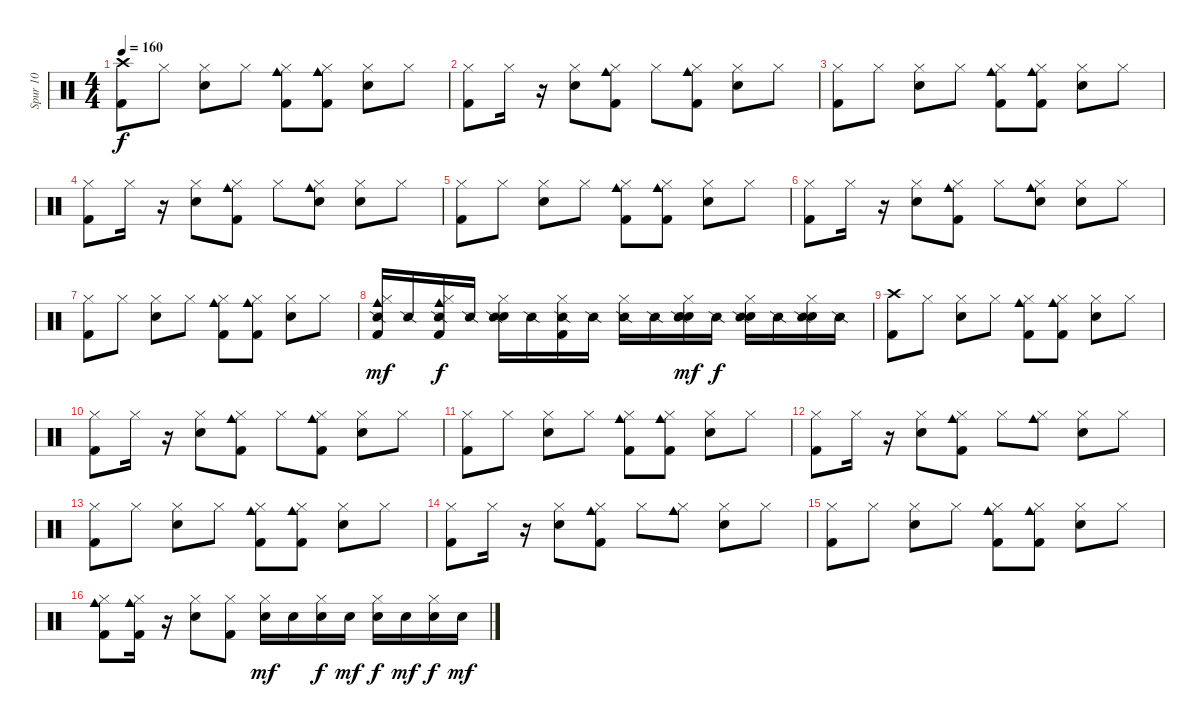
\track ("Spur 10" "Spur 10") {instrument percussion}
\staff {score}
\articulation defaults
\ts (4 4)
\tempo 160
\clef neutral
\ks c
("Crash high (hit)" "Kick (hit) 2").8{dy f} "Hi-Hat (closed)".8 ("Hi-Hat (closed)" "Snare (hit) 2").8 "Hi-Hat (closed)".8 ("Hi-Hat (closed)" "Cowbell medium (hit)" "Kick (hit) 2").8 ("Hi-Hat (closed)" "Cowbell medium (hit)" "Kick (hit) 2").8 ("Hi-Hat (closed)" "Snare (hit) 2").8 "Hi-Hat (closed)".8 |
("Hi-Hat (closed)" "Kick (hit) 2").8 "Hi-Hat (closed)".16 r.16 ("Hi-Hat (closed)" "Snare (hit) 2").8 ("Hi-Hat (closed)" "Kick (hit) 2" "Cowbell medium (hit)").8 "Hi-Hat (closed)".8 ("Hi-Hat (closed)" "Kick (hit) 2" "Cowbell medium (hit)").8 ("Hi-Hat (closed)" "Snare (hit) 2").8 "Hi-Hat (closed)".8 |
("Hi-Hat (closed)" "Kick (hit) 2").8 "Hi-Hat (closed)".8 ("Hi-Hat (closed)" "Snare (hit) 2").8 "Hi-Hat (closed)".8 ("Hi-Hat (closed)" "Cowbell medium (hit)" "Kick (hit) 2").8 ("Hi-Hat (closed)" "Cowbell medium (hit)" "Kick (hit) 2").8 ("Hi-Hat (closed)" "Snare (hit) 2").8 "Hi-Hat (closed)".8 |
("Hi-Hat (closed)" "Kick (hit) 2").8 "Hi-Hat (closed)".16 r.16 ("Hi-Hat (closed)" "Snare (hit) 2").8 ("Hi-Hat (closed)" "Kick (hit) 2" "Cowbell medium (hit)").8 "Hi-Hat (closed)".8 ("Hi-Hat (closed)" "Hand Clap (hit)" "Cowbell medium (hit)").8 ("Hi-Hat (closed)" "Snare (hit) 2").8 "Hi-Hat (closed)".8 |
("Hi-Hat (closed)" "Kick (hit) 2").8 "Hi-Hat (closed)".8 ("Hi-Hat (closed)" "Snare (hit) 2").8 "Hi-Hat (closed)".8 ("Hi-Hat (closed)" "Cowbell medium (hit)" "Kick (hit) 2").8 ("Hi-Hat (closed)" "Cowbell medium (hit)" "Kick (hit) 2").8 ("Hi-Hat (closed)" "Snare (hit) 2").8 "Hi-Hat (closed)".8 |
("Hi-Hat (closed)" "Kick (hit) 2").8 "Hi-Hat (closed)".16 r.16 ("Hi-Hat (closed)" "Snare (hit) 2").8 ("Hi-Hat (closed)" "Kick (hit) 2" "Cowbell medium (hit)").8 "Hi-Hat (closed)".8 ("Hi-Hat (closed)" "Hand Clap (hit)" "Cowbell medium (hit)").8 ("Hi-Hat (closed)" "Snare (hit) 2").8 "Hi-Hat (closed)".8 |
("Hi-Hat (closed)" "Kick (hit) 2").8 "Hi-Hat (closed)".8 ("Hi-Hat (closed)" "Snare (hit) 2").8 "Hi-Hat (closed)".8 ("Hi-Hat (closed)" "Cowbell medium (hit)" "Kick (hit) 2").8 ("Hi-Hat (closed)" "Cowbell medium (hit)" "Kick (hit) 2").8 ("Hi-Hat (closed)" "Snare (hit) 2").8 "Hi-Hat (closed)".8 |
("Cowbell medium (hit)" "Hi-Hat (closed)" "Kick (hit) 2" "Snare (side stick) 2").16{dy mf} "Snare (side stick) 2".16 ("Cowbell medium (hit)" "Kick (hit) 2" "Hi-Hat (closed)" "Snare (side stick) 2").16{dy f} "Snare (side stick) 2".16 ("Hi-Hat (closed)" "Snare (hit) 2" "Snare (side stick) 2").16 "Snare (side stick) 2".16 ("Hi-Hat (closed)" "Kick (hit) 2" "Snare (side stick) 2").16 "Snare (side stick) 2".16 ("Hi-Hat (closed)" "Snare (side stick) 2").16 "Snare (side stick) 2".16 ("Hi-Hat (closed)" "Snare (hit) 2" "Hand Clap (hit)" "Snare (side stick) 2").16{dy mf} "Snare (side stick) 2".16{dy f} ("Hi-Hat (closed)" "Snare (hit) 2" "Snare (side stick) 2").16 "Snare (side stick) 2".16 ("Snare (hit) 2" "Hi-Hat (closed)" "Snare (side stick) 2").16 "Snare (side stick) 2".16 |
("Crash high (hit)" "Kick (hit) 2").8 "Hi-Hat (closed)".8 ("Hi-Hat (closed)" "Snare (hit) 2").8 "Hi-Hat (closed)".8 ("Hi-Hat (closed)" "Cowbell medium (hit)" "Kick (hit) 2").8 ("Hi-Hat (closed)" "Cowbell medium (hit)" "Kick (hit) 2").8 ("Hi-Hat (closed)" "Snare (hit) 2").8 "Hi-Hat (closed)".8 |
("Hi-Hat (closed)" "Kick (hit) 2").8 "Hi-Hat (closed)".16 r.16 ("Hi-Hat (closed)" "Snare (hit) 2").8 ("Hi-Hat (closed)" "Kick (hit) 2" "Cowbell medium (hit)").8 "Hi-Hat (closed)".8 ("Hi-Hat (closed)" "Kick (hit) 2" "Cowbell medium (hit)").8 ("Hi-Hat (closed)" "Snare (hit) 2").8 "Hi-Hat (closed)".8 |
("Hi-Hat (closed)" "Kick (hit) 2").8 "Hi-Hat (closed)".8 ("Hi-Hat (closed)" "Snare (hit) 2").8 "Hi-Hat (closed)".8 ("Hi-Hat (closed)" "Cowbell medium (hit)" "Kick (hit) 2").8 ("Hi-Hat (closed)" "Cowbell medium (hit)" "Kick (hit) 2").8 ("Hi-Hat (closed)" "Snare (hit) 2").8 "Hi-Hat (closed)".8 |
("Hi-Hat (closed)" "Kick (hit) 2").8 "Hi-Hat (closed)".16 r.16 ("Hi-Hat (closed)" "Snare (hit) 2").8 ("Hi-Hat (closed)" "Kick (hit) 2" "Cowbell medium (hit)").8 "Hi-Hat (closed)".8 ("Hi-Hat (closed)" "Cowbell medium (hit)").8 ("Hi-Hat (closed)" "Snare (hit) 2").8 "Hi-Hat (closed)".8 |
("Hi-Hat (closed)" "Kick (hit) 2").8 "Hi-Hat (closed)".8 ("Hi-Hat (closed)" "Snare (hit) 2").8 "Hi-Hat (closed)".8 ("Hi-Hat (closed)" "Cowbell medium (hit)" "Kick (hit) 2").8 ("Hi-Hat (closed)" "Cowbell medium (hit)" "Kick (hit) 2").8 ("Hi-Hat (closed)" "Snare (hit) 2").8 "Hi-Hat (closed)".8 |
("Hi-Hat (closed)" "Kick (hit) 2").8 "Hi-Hat (closed)".16 r.16 ("Hi-Hat (closed)" "Snare (hit) 2").8 ("Hi-Hat (closed)" "Kick (hit) 2" "Cowbell medium (hit)").8 "Hi-Hat (closed)".8 ("Hi-Hat (closed)" "Cowbell medium (hit)").8 ("Hi-Hat (closed)" "Snare (hit) 2").8 "Hi-Hat (closed)".8 |
("Hi-Hat (closed)" "Kick (hit) 2").8 "Hi-Hat (closed)".8 ("Hi-Hat (closed)" "Snare (hit) 2").8 "Hi-Hat (closed)".8 ("Hi-Hat (closed)" "Cowbell medium (hit)" "Kick (hit) 2").8 ("Hi-Hat (closed)" "Cowbell medium (hit)" "Kick (hit) 2").8 ("Hi-Hat (closed)" "Snare (hit) 2").8 "Hi-Hat (closed)".8 |
("Cowbell medium (hit)" "Hi-Hat (closed)" "Kick (hit) 2").8 ("Cowbell medium (hit)" "Kick (hit) 2" "Hi-Hat (closed)").16 r.16 ("Hi-Hat (closed)" "Snare (hit) 2").8 ("Hi-Hat (closed)" "Kick (hit) 2").8 ("Snare (hit) 2" "Hi-Hat (closed)").16{dy mf} "Snare (hit) 2".16 ("Hi-Hat (closed)" "Snare (hit) 2").16{dy f} "Snare (hit) 2".16{dy mf} ("Hi-Hat (closed)" "Snare (hit) 2").16{dy f} "Snare (hit) 2".16{dy mf} ("Snare (hit) 2" "Hi-Hat (closed)").16{dy f} "Snare (hit) 2".16{dy mf}
